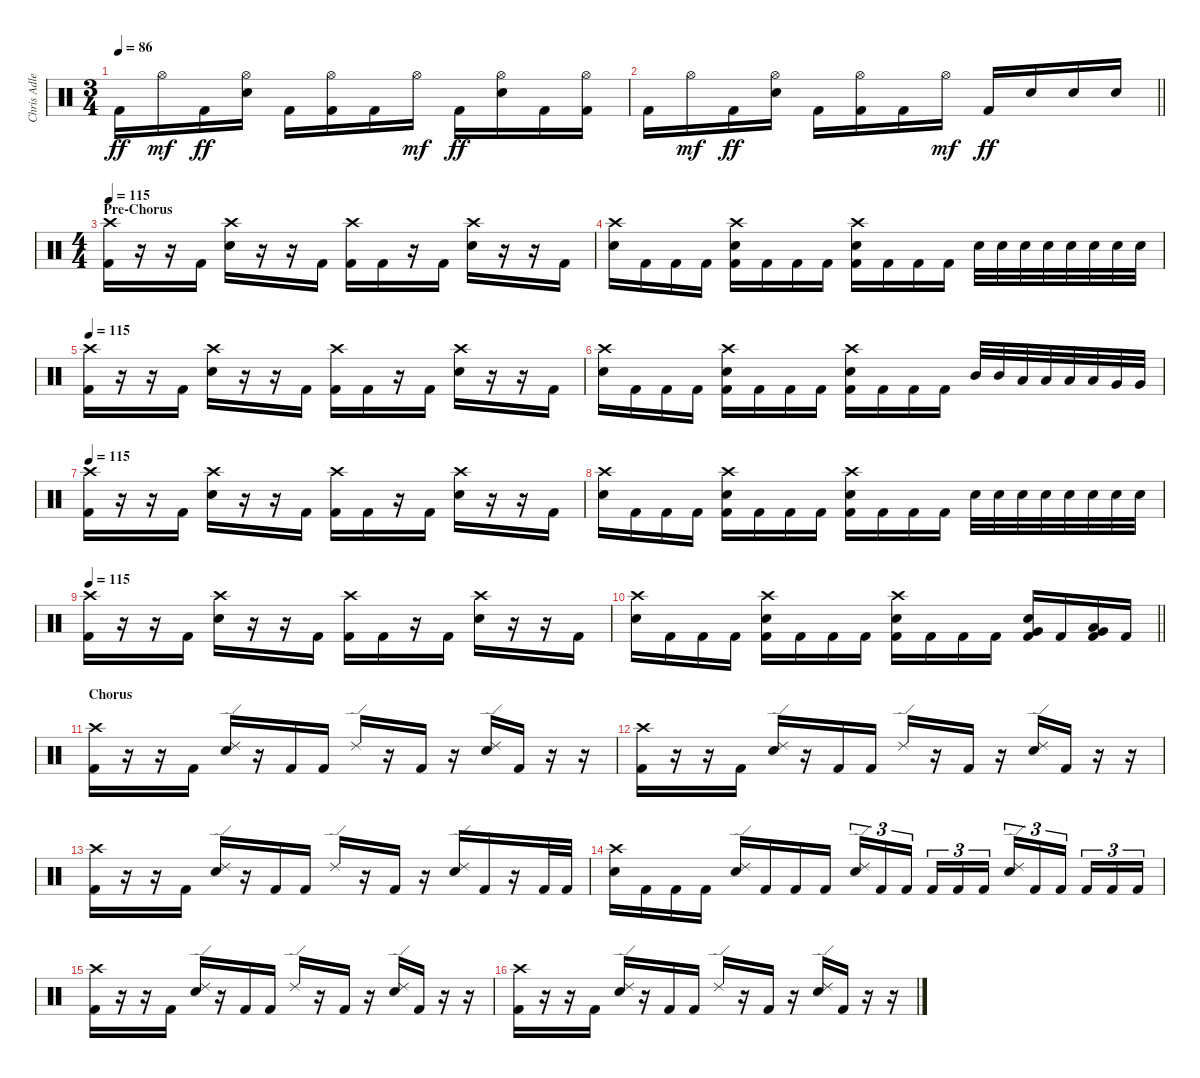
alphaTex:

\track ("Chris Adler" "Chris Adle") {instrument percussion}
\staff {score}
\articulation defaults
\ts (3 4)
\tempo 86
\clef neutral
\ks c "Kick (hit) 2".16{dy ff} "Hi-Hat (open)".16{dy mf} "Kick (hit) 2".16{dy ff}
("Hi-Hat (open)" "Snare (hit) 2").16 "Kick (hit) 2".16 ("Hi-Hat (open)" "Kick (hit) 2").16 "Kick (hit) 2".16 "Hi-Hat (open)".16{dy mf} "Kick (hit) 2".16{dy ff} ("Hi-Hat (open)" "Snare (hit) 2").16 "Kick (hit) 2".16 ("Hi-Hat (open)" "Kick (hit) 2").16 |
\barLineRight lightlight "Kick (hit) 2".16 "Hi-Hat (open)".16{dy mf} "Kick (hit) 2".16{dy ff}
("Hi-Hat (open)" "Snare (hit) 2").16 "Kick (hit) 2".16 ("Hi-Hat (open)" "Kick (hit) 2").16 "Kick (hit) 2".16 "Hi-Hat (open)".16{dy mf} "Kick (hit) 2".16{dy ff} "Snare (hit) 2".16 "Snare (hit) 2".16 "Snare (hit) 2".16 |
\ts (4 4)
\section ("" "Pre-Chorus")
\tempo 115
("Crash high (hit)" "Kick (hit) 2").16 r.16 r.16 "Kick (hit) 2".16 ("Crash high (hit)" "Snare (hit) 2").16 r.16 r.16 "Kick (hit) 2".16 ("Crash high (hit)" "Kick (hit) 2").16 "Kick (hit) 2".16 r.16 "Kick (hit) 2".16 ("Crash high (hit)" "Snare (hit) 2").16 r.16 r.16 "Kick (hit) 2".16 |
("Crash high (hit)" "Snare (hit) 2").16 "Kick (hit) 2".16 "Kick (hit) 2".16 "Kick (hit) 2".16 ("Crash high (hit)" "Snare (hit) 2" "Kick (hit) 2").16 "Kick (hit) 2".16 "Kick (hit) 2".16 "Kick (hit) 2".16 ("Crash high (hit)" "Snare (hit) 2" "Kick (hit) 2").16 "Kick (hit) 2".16 "Kick (hit) 2".16 "Kick (hit) 2".16 "Snare (hit) 2".32 "Snare (hit) 2".32 "Snare (hit) 2".32 "Snare (hit) 2".32 "Snare (hit) 2".32 "Snare (hit) 2".32 "Snare (hit) 2".32 "Snare (hit) 2".32 |
\tempo 115
("Crash high (hit)" "Kick (hit) 2").16 r.16 r.16 "Kick (hit) 2".16 ("Crash high (hit)" "Snare (hit) 2").16 r.16 r.16 "Kick (hit) 2".16 ("Crash high (hit)" "Kick (hit) 2").16 "Kick (hit) 2".16 r.16 "Kick (hit) 2".16 ("Crash high (hit)" "Snare (hit) 2").16 r.16 r.16 "Kick (hit) 2".16 |
("Crash high (hit)" "Snare (hit) 2").16 "Kick (hit) 2".16 "Kick (hit) 2".16 "Kick (hit) 2".16 ("Crash high (hit)" "Snare (hit) 2" "Kick (hit) 2").16 "Kick (hit) 2".16 "Kick (hit) 2".16 "Kick (hit) 2".16 ("Crash high (hit)" "Snare (hit) 2" "Kick (hit) 2").16 "Kick (hit) 2".16 "Kick (hit) 2".16 "Kick (hit) 2".16 "Mid Tom (hit)".32 "Mid Tom (hit)".32 "Low Tom (hit)".32 "Low Tom (hit)".32 "Low Tom (hit)".32 "Low Tom (hit)".32 "Very Low Tom (hit)".32 "Very Low Tom (hit)".32 |
\tempo 115
("Crash high (hit)" "Kick (hit) 2").16 r.16 r.16 "Kick (hit) 2".16 ("Crash high (hit)" "Snare (hit) 2").16 r.16 r.16 "Kick (hit) 2".16 ("Crash high (hit)" "Kick (hit) 2").16 "Kick (hit) 2".16 r.16 "Kick (hit) 2".16 ("Crash high (hit)" "Snare (hit) 2").16 r.16 r.16 "Kick (hit) 2".16 |
("Crash high (hit)" "Snare (hit) 2").16 "Kick (hit) 2".16 "Kick (hit) 2".16 "Kick (hit) 2".16 ("Crash high (hit)" "Snare (hit) 2" "Kick (hit) 2").16 "Kick (hit) 2".16 "Kick (hit) 2".16 "Kick (hit) 2".16 ("Crash high (hit)" "Snare (hit) 2" "Kick (hit) 2").16 "Kick (hit) 2".16 "Kick (hit) 2".16 "Kick (hit) 2".16 "Snare (hit) 2".32 "Snare (hit) 2".32 "Snare (hit) 2".32 "Snare (hit) 2".32 "Snare (hit) 2".32 "Snare (hit) 2".32 "Snare (hit) 2".32 "Snare (hit) 2".32 |
\tempo 115
("Crash high (hit)" "Kick (hit) 2").16 r.16 r.16 "Kick (hit) 2".16 ("Crash high (hit)" "Snare (hit) 2").16 r.16 r.16 "Kick (hit) 2".16 ("Crash high (hit)" "Kick (hit) 2").16 "Kick (hit) 2".16 r.16 "Kick (hit) 2".16 ("Crash high (hit)" "Snare (hit) 2").16 r.16 r.16 "Kick (hit) 2".16 |
\barLineRight lightlight
("Crash high (hit)" "Snare (hit) 2").16 "Kick (hit) 2".16 "Kick (hit) 2".16 "Kick (hit) 2".16 ("Crash high (hit)" "Snare (hit) 2" "Kick (hit) 2").16 "Kick (hit) 2".16 "Kick (hit) 2".16 "Kick (hit) 2".16 ("Crash high (hit)" "Snare (hit) 2" "Kick (hit) 2").16 "Kick (hit) 2".16 "Kick (hit) 2".16 "Kick (hit) 2".16 ("Very Low Tom (hit)" "Snare (hit) 2" "Kick (hit) 2").16 "Kick (hit) 2".16 ("Low Tom (hit)" "Very Low Tom (hit)" "Kick (hit) 2").16 "Kick (hit) 2".16 |
\section ("" "Chorus")
("Crash high (hit)" "Kick (hit) 2").16 r.16 r.16 "Kick (hit) 2".16 ("Ride (edge) 2" "Snare (hit) 2").16 r.16 "Kick (hit) 2".16 "Kick (hit) 2".16 "Ride (edge) 2".16 r.16 "Kick (hit) 2".16 r.16 ("Ride (edge) 2" "Snare (hit) 2").16 "Kick (hit) 2".16 r.16 r.16 |
("Crash high (hit)" "Kick (hit) 2").16 r.16 r.16 "Kick (hit) 2".16 ("Ride (edge) 2" "Snare (hit) 2").16 r.16 "Kick (hit) 2".16 "Kick (hit) 2".16 "Ride (edge) 2".16 r.16 "Kick (hit) 2".16 r.16 ("Ride (edge) 2" "Snare (hit) 2").16 "Kick (hit) 2".16 r.16 r.16 |
("Crash high (hit)" "Kick (hit) 2").16 r.16 r.16 "Kick (hit) 2".16 ("Ride (edge) 2" "Snare (hit) 2").16 r.16 "Kick (hit) 2".16 "Kick (hit) 2".16 "Ride (edge) 2".16 r.16 "Kick (hit) 2".16 r.16 ("Ride (edge) 2" "Snare (hit) 2").16 "Kick (hit) 2".16 r.16 "Kick (hit) 2".32 "Kick (hit) 2".32 |
("Crash high (hit)" "Snare (hit) 2").16 "Kick (hit) 2".16 "Kick (hit) 2".16 "Kick (hit) 2".16 ("Ride (edge) 2" "Snare (hit) 2").16 "Kick (hit) 2".16 "Kick (hit) 2".16 "Kick (hit) 2".16 ("Ride (edge) 2" "Snare (hit) 2").16{tu (3 2)} "Kick (hit) 2".16{tu (3 2)} "Kick (hit) 2".16{tu (3 2) beam splitsecondary} "Kick (hit) 2".16{tu (3 2)} "Kick (hit) 2".16{tu (3 2)} "Kick (hit) 2".16{tu (3 2)} ("Ride (edge) 2" "Snare (hit) 2").16{tu (3 2)} "Kick (hit) 2".16{tu (3 2)} "Kick (hit) 2".16{tu (3 2) beam splitsecondary} "Kick (hit) 2".16{tu (3 2)} "Kick (hit) 2".16{tu (3 2)} "Kick (hit) 2".16{tu (3 2)} |
("Crash high (hit)" "Kick (hit) 2").16 r.16 r.16 "Kick (hit) 2".16 ("Ride (edge) 2" "Snare (hit) 2").16 r.16 "Kick (hit) 2".16 "Kick (hit) 2".16 "Ride (edge) 2".16 r.16 "Kick (hit) 2".16 r.16 ("Ride (edge) 2" "Snare (hit) 2").16 "Kick (hit) 2".16 r.16 r.16 |
("Crash high (hit)" "Kick (hit) 2").16 r.16 r.16 "Kick (hit) 2".16 ("Ride (edge) 2" "Snare (hit) 2").16 r.16 "Kick (hit) 2".16 "Kick (hit) 2".16 "Ride (edge) 2".16 r.16 "Kick (hit) 2".16 r.16 ("Ride (edge) 2" "Snare (hit) 2").16 "Kick (hit) 2".16 r.16 r.16
